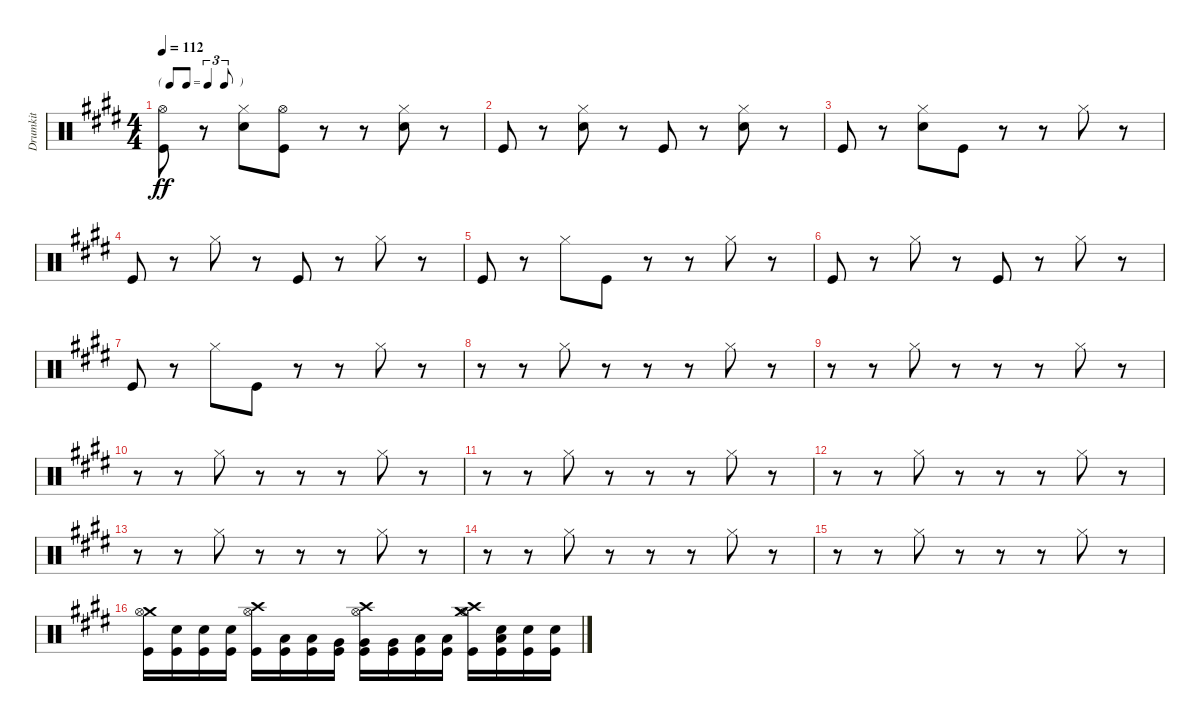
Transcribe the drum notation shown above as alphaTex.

\track ("Drumkit" "Drumkit") {instrument percussion}
\staff {score}
\articulation defaults
\ts (4 4)
\tf triplet8th
\tempo 112
\clef neutral
\ks e
("Hi-Hat (open)" "Kick (hit)").8{dy ff} r.8 ("Snare (hit) 2" "Hi-Hat (closed)").8 ("Hi-Hat (open)" "Kick (hit)").8 r.8 r.8 ("Snare (hit) 2" "Hi-Hat (closed)").8 r.8 |
"Kick (hit)".8 r.8 ("Snare (hit) 2" "Hi-Hat (closed)").8 r.8 "Kick (hit)".8 r.8 ("Snare (hit) 2" "Hi-Hat (closed)").8 r.8 |
"Kick (hit)".8 r.8 ("Snare (hit) 2" "Hi-Hat (closed)").8 "Kick (hit)".8 r.8 r.8 "Hi-Hat (closed)".8 r.8 |
"Kick (hit)".8 r.8 "Hi-Hat (closed)".8 r.8 "Kick (hit)".8 r.8 "Hi-Hat (closed)".8 r.8 |
"Kick (hit)".8 r.8 "Hi-Hat (closed)".8 "Kick (hit)".8 r.8 r.8 "Hi-Hat (closed)".8 r.8 |
"Kick (hit)".8 r.8 "Hi-Hat (closed)".8 r.8 "Kick (hit)".8 r.8 "Hi-Hat (closed)".8 r.8 |
"Kick (hit)".8 r.8 "Hi-Hat (closed)".8 "Kick (hit)".8 r.8 r.8 "Hi-Hat (closed)".8 r.8 |
r.8 r.8 "Hi-Hat (closed)".8 r.8 r.8 r.8 "Hi-Hat (closed)".8 r.8 |
r.8 r.8 "Hi-Hat (closed)".8 r.8 r.8 r.8 "Hi-Hat (closed)".8 r.8 |
r.8 r.8 "Hi-Hat (closed)".8 r.8 r.8 r.8 "Hi-Hat (closed)".8 r.8 |
r.8 r.8 "Hi-Hat (closed)".8 r.8 r.8 r.8 "Hi-Hat (closed)".8 r.8 |
r.8 r.8 "Hi-Hat (closed)".8 r.8 r.8 r.8 "Hi-Hat (closed)".8 r.8 |
r.8 r.8 "Hi-Hat (closed)".8 r.8 r.8 r.8 "Hi-Hat (closed)".8 r.8 |
r.8 r.8 "Hi-Hat (closed)".8 r.8 r.8 r.8 "Hi-Hat (closed)".8 r.8 |
r.8 r.8 "Hi-Hat (closed)".8 r.8 r.8 r.8 "Hi-Hat (closed)".8 r.8 |
("Kick (hit)" "Crash medium (hit)" "Hi-Hat (open)").16 ("Kick (hit)" "Snare (hit) 2").16 ("Kick (hit)" "Snare (hit) 2").16 ("Kick (hit)" "Snare (hit) 2").16 ("Kick (hit)" "Crash high (hit)" "Hi-Hat (open)").16 ("Kick (hit)" "Low Tom (hit)").16 ("Kick (hit)" "Low Tom (hit)").16 ("Kick (hit)" "Very Low Tom (hit)").16 ("Kick (hit)" "Crash high (hit)" "Hi-Hat (open)" "Very Low Tom (hit)").16 ("Kick (hit)" "Very Low Tom (hit)").16 ("Kick (hit)" "Low Tom (hit)").16 ("Kick (hit)" "Low Tom (hit)").16 ("Kick (hit)" "Crash medium (hit)" "Hi-Hat (open)" "Crash high (hit)").16 ("Kick (hit)" "Snare (hit) 2" "Low Tom (hit)").16 ("Kick (hit)" "Snare (hit) 2").16 ("Kick (hit)" "Snare (hit) 2").16
